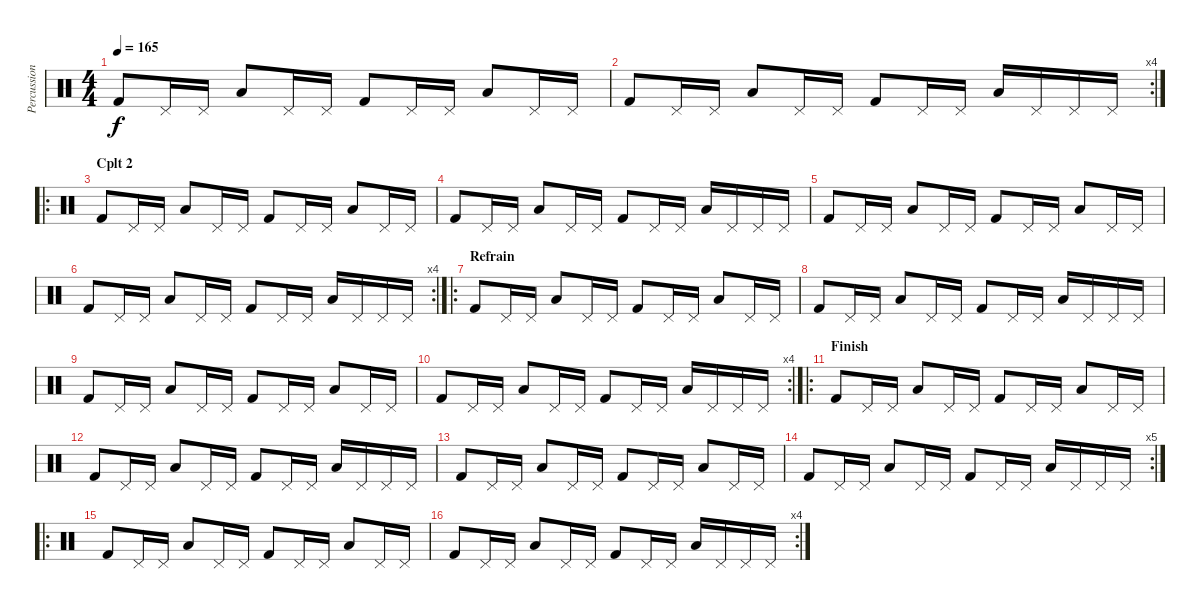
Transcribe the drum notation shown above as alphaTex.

\track ("Percussions" "Percussion") {instrument percussion}
\staff {score}
\articulation defaults
\ts (4 4)
\tempo 165
\clef neutral
\ks c "Kick (hit) 2".8{dy f} "Pedal Hi-Hat (hit)".16 "Pedal Hi-Hat (hit)".16 "Low Floor Tom (hit)".8 "Pedal Hi-Hat (hit)".16 "Pedal Hi-Hat (hit)".16 "Kick (hit) 2".8 "Pedal Hi-Hat (hit)".16 "Pedal Hi-Hat (hit)".16 "Low Floor Tom (hit)".8 "Pedal Hi-Hat (hit)".16 "Pedal Hi-Hat (hit)".16
|
\rc 4 "Kick (hit) 2".8 "Pedal Hi-Hat (hit)".16 "Pedal Hi-Hat (hit)".16 "Low Floor Tom (hit)".8 "Pedal Hi-Hat (hit)".16 "Pedal Hi-Hat (hit)".16 "Kick (hit) 2".8 "Pedal Hi-Hat (hit)".16 "Pedal Hi-Hat (hit)".16 "Low Floor Tom (hit)".16 "Pedal Hi-Hat (hit)".16 "Pedal Hi-Hat (hit)".16 "Pedal Hi-Hat (hit)".16
|
\ro
\section ("" "Cplt 2")
"Kick (hit) 2".8 "Pedal Hi-Hat (hit)".16 "Pedal Hi-Hat (hit)".16 "Low Floor Tom (hit)".8 "Pedal Hi-Hat (hit)".16 "Pedal Hi-Hat (hit)".16 "Kick (hit) 2".8 "Pedal Hi-Hat (hit)".16 "Pedal Hi-Hat (hit)".16 "Low Floor Tom (hit)".8 "Pedal Hi-Hat (hit)".16 "Pedal Hi-Hat (hit)".16 |
"Kick (hit) 2".8 "Pedal Hi-Hat (hit)".16 "Pedal Hi-Hat (hit)".16 "Low Floor Tom (hit)".8 "Pedal Hi-Hat (hit)".16 "Pedal Hi-Hat (hit)".16 "Kick (hit) 2".8 "Pedal Hi-Hat (hit)".16 "Pedal Hi-Hat (hit)".16 "Low Floor Tom (hit)".16 "Pedal Hi-Hat (hit)".16 "Pedal Hi-Hat (hit)".16 "Pedal Hi-Hat (hit)".16 |
"Kick (hit) 2".8 "Pedal Hi-Hat (hit)".16 "Pedal Hi-Hat (hit)".16 "Low Floor Tom (hit)".8 "Pedal Hi-Hat (hit)".16 "Pedal Hi-Hat (hit)".16 "Kick (hit) 2".8 "Pedal Hi-Hat (hit)".16 "Pedal Hi-Hat (hit)".16 "Low Floor Tom (hit)".8 "Pedal Hi-Hat (hit)".16 "Pedal Hi-Hat (hit)".16 |
\rc 4 "Kick (hit) 2".8 "Pedal Hi-Hat (hit)".16 "Pedal Hi-Hat (hit)".16 "Low Floor Tom (hit)".8 "Pedal Hi-Hat (hit)".16 "Pedal Hi-Hat (hit)".16 "Kick (hit) 2".8 "Pedal Hi-Hat (hit)".16 "Pedal Hi-Hat (hit)".16 "Low Floor Tom (hit)".16 "Pedal Hi-Hat (hit)".16 "Pedal Hi-Hat (hit)".16 "Pedal Hi-Hat (hit)".16
|
\ro
\section ("" "Refrain")
"Kick (hit) 2".8 "Pedal Hi-Hat (hit)".16 "Pedal Hi-Hat (hit)".16 "Low Floor Tom (hit)".8 "Pedal Hi-Hat (hit)".16 "Pedal Hi-Hat (hit)".16 "Kick (hit) 2".8 "Pedal Hi-Hat (hit)".16 "Pedal Hi-Hat (hit)".16 "Low Floor Tom (hit)".8 "Pedal Hi-Hat (hit)".16 "Pedal Hi-Hat (hit)".16 |
"Kick (hit) 2".8 "Pedal Hi-Hat (hit)".16 "Pedal Hi-Hat (hit)".16 "Low Floor Tom (hit)".8 "Pedal Hi-Hat (hit)".16 "Pedal Hi-Hat (hit)".16 "Kick (hit) 2".8 "Pedal Hi-Hat (hit)".16 "Pedal Hi-Hat (hit)".16 "Low Floor Tom (hit)".16 "Pedal Hi-Hat (hit)".16 "Pedal Hi-Hat (hit)".16 "Pedal Hi-Hat (hit)".16 |
"Kick (hit) 2".8 "Pedal Hi-Hat (hit)".16 "Pedal Hi-Hat (hit)".16 "Low Floor Tom (hit)".8 "Pedal Hi-Hat (hit)".16 "Pedal Hi-Hat (hit)".16 "Kick (hit) 2".8 "Pedal Hi-Hat (hit)".16 "Pedal Hi-Hat (hit)".16 "Low Floor Tom (hit)".8 "Pedal Hi-Hat (hit)".16 "Pedal Hi-Hat (hit)".16 |
\rc 4 "Kick (hit) 2".8 "Pedal Hi-Hat (hit)".16 "Pedal Hi-Hat (hit)".16 "Low Floor Tom (hit)".8 "Pedal Hi-Hat (hit)".16 "Pedal Hi-Hat (hit)".16 "Kick (hit) 2".8 "Pedal Hi-Hat (hit)".16 "Pedal Hi-Hat (hit)".16 "Low Floor Tom (hit)".16 "Pedal Hi-Hat (hit)".16 "Pedal Hi-Hat (hit)".16 "Pedal Hi-Hat (hit)".16
|
\ro
\section ("" "Finish")
"Kick (hit) 2".8 "Pedal Hi-Hat (hit)".16 "Pedal Hi-Hat (hit)".16 "Low Floor Tom (hit)".8 "Pedal Hi-Hat (hit)".16 "Pedal Hi-Hat (hit)".16 "Kick (hit) 2".8 "Pedal Hi-Hat (hit)".16 "Pedal Hi-Hat (hit)".16 "Low Floor Tom (hit)".8 "Pedal Hi-Hat (hit)".16 "Pedal Hi-Hat (hit)".16 |
"Kick (hit) 2".8 "Pedal Hi-Hat (hit)".16 "Pedal Hi-Hat (hit)".16 "Low Floor Tom (hit)".8 "Pedal Hi-Hat (hit)".16 "Pedal Hi-Hat (hit)".16 "Kick (hit) 2".8 "Pedal Hi-Hat (hit)".16 "Pedal Hi-Hat (hit)".16 "Low Floor Tom (hit)".16 "Pedal Hi-Hat (hit)".16 "Pedal Hi-Hat (hit)".16 "Pedal Hi-Hat (hit)".16 |
"Kick (hit) 2".8 "Pedal Hi-Hat (hit)".16 "Pedal Hi-Hat (hit)".16 "Low Floor Tom (hit)".8 "Pedal Hi-Hat (hit)".16 "Pedal Hi-Hat (hit)".16 "Kick (hit) 2".8 "Pedal Hi-Hat (hit)".16 "Pedal Hi-Hat (hit)".16 "Low Floor Tom (hit)".8 "Pedal Hi-Hat (hit)".16 "Pedal Hi-Hat (hit)".16 |
\rc 5 "Kick (hit) 2".8 "Pedal Hi-Hat (hit)".16 "Pedal Hi-Hat (hit)".16 "Low Floor Tom (hit)".8 "Pedal Hi-Hat (hit)".16 "Pedal Hi-Hat (hit)".16 "Kick (hit) 2".8 "Pedal Hi-Hat (hit)".16 "Pedal Hi-Hat (hit)".16 "Low Floor Tom (hit)".16 "Pedal Hi-Hat (hit)".16 "Pedal Hi-Hat (hit)".16 "Pedal Hi-Hat (hit)".16
|
\ro "Kick (hit) 2".8 "Pedal Hi-Hat (hit)".16 "Pedal Hi-Hat (hit)".16 "Low Floor Tom (hit)".8 "Pedal Hi-Hat (hit)".16 "Pedal Hi-Hat (hit)".16 "Kick (hit) 2".8 "Pedal Hi-Hat (hit)".16 "Pedal Hi-Hat (hit)".16 "Low Floor Tom (hit)".8 "Pedal Hi-Hat (hit)".16 "Pedal Hi-Hat (hit)".16
|
\rc 4 "Kick (hit) 2".8 "Pedal Hi-Hat (hit)".16 "Pedal Hi-Hat (hit)".16 "Low Floor Tom (hit)".8 "Pedal Hi-Hat (hit)".16 "Pedal Hi-Hat (hit)".16 "Kick (hit) 2".8 "Pedal Hi-Hat (hit)".16 "Pedal Hi-Hat (hit)".16 "Low Floor Tom (hit)".16 "Pedal Hi-Hat (hit)".16 "Pedal Hi-Hat (hit)".16 "Pedal Hi-Hat (hit)".16
